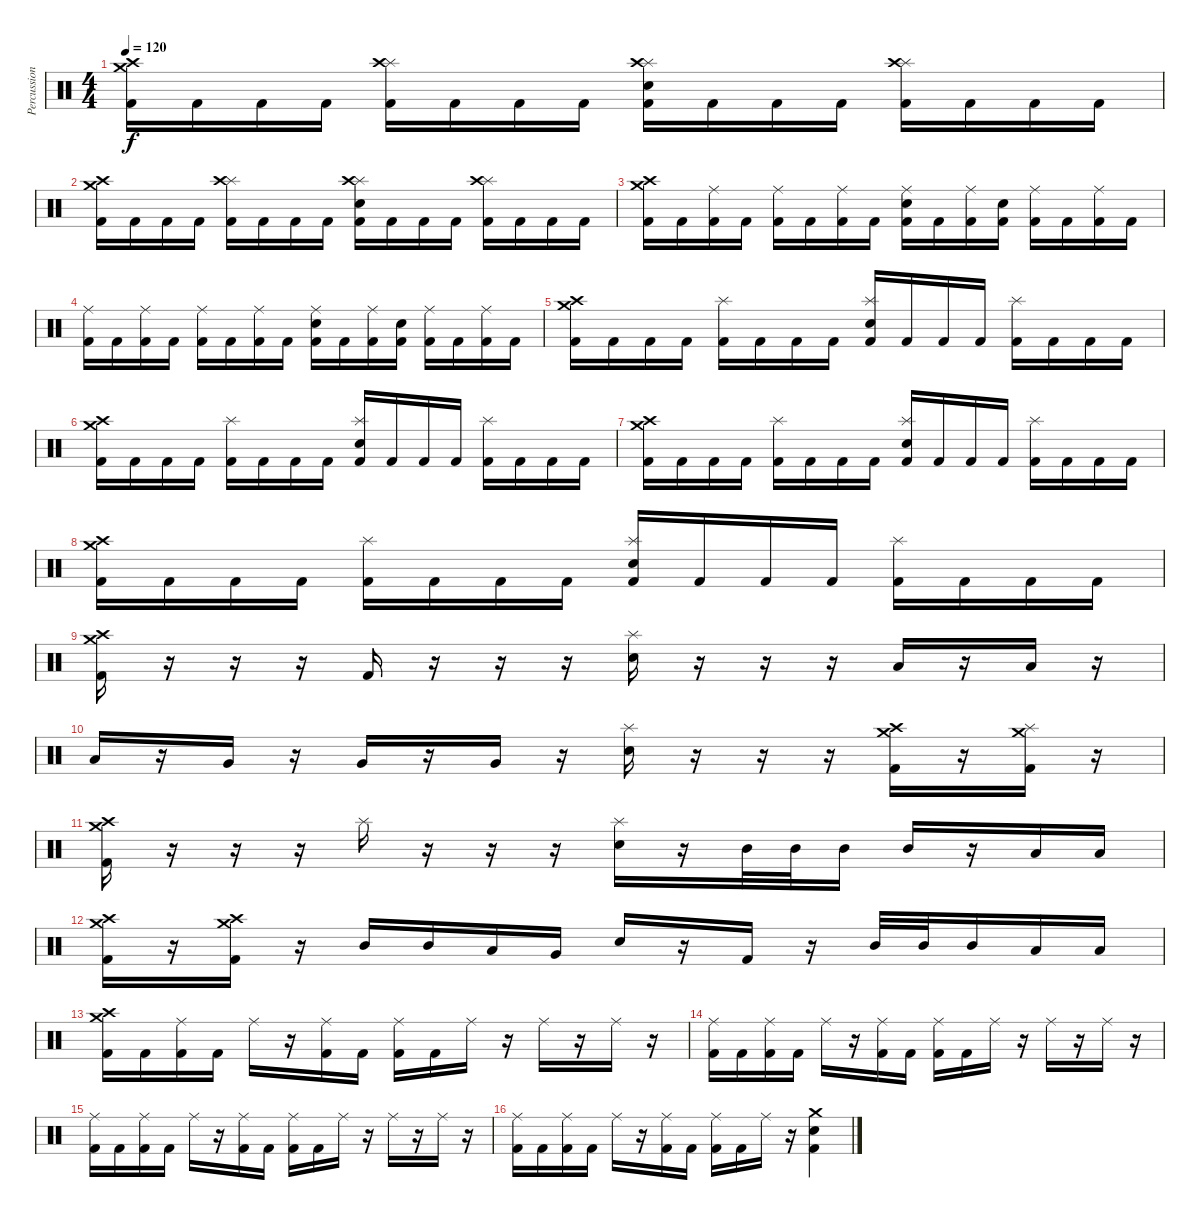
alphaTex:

\track ("Percussion" "Percussion") {instrument percussion}
\staff {score}
\articulation defaults
\ts (4 4)
\tempo 120
\clef neutral
\ks c
("Crash medium (hit)" "Crash high (hit)" "Kick (hit) 2").16{dy f} "Kick (hit) 2".16 "Kick (hit) 2".16 "Kick (hit) 2".16 ("Splash (hit)" "Crash high (hit)" "Kick (hit) 2").16 "Kick (hit) 2".16 "Kick (hit) 2".16 "Kick (hit) 2".16 ("Splash (hit)" "Crash high (hit)" "Snare (hit) 2" "Kick (hit) 2").16 "Kick (hit) 2".16 "Kick (hit) 2".16 "Kick (hit) 2".16 ("Splash (hit)" "Crash high (hit)" "Kick (hit) 2").16 "Kick (hit) 2".16 "Kick (hit) 2".16 "Kick (hit) 2".16 |
("Crash medium (hit)" "Crash high (hit)" "Kick (hit) 2").16 "Kick (hit) 2".16 "Kick (hit) 2".16 "Kick (hit) 2".16 ("Splash (hit)" "Crash high (hit)" "Kick (hit) 2").16 "Kick (hit) 2".16 "Kick (hit) 2".16 "Kick (hit) 2".16 ("Splash (hit)" "Crash high (hit)" "Snare (hit) 2" "Kick (hit) 2").16 "Kick (hit) 2".16 "Kick (hit) 2".16 "Kick (hit) 2".16 ("Splash (hit)" "Crash high (hit)" "Kick (hit) 2").16 "Kick (hit) 2".16 "Kick (hit) 2".16 "Kick (hit) 2".16 |
("Crash medium (hit)" "Crash high (hit)" "Kick (hit) 2").16 "Kick (hit) 2".16 ("Ride (middle)" "Kick (hit) 2").16 "Kick (hit) 2".16 ("Ride (middle)" "Kick (hit) 2").16 "Kick (hit) 2".16 ("Ride (middle)" "Kick (hit) 2").16 "Kick (hit) 2".16 ("Ride (middle)" "Snare (hit) 2" "Kick (hit) 2").16 "Kick (hit) 2".16 ("Ride (middle)" "Kick (hit) 2").16 ("Snare (hit) 2" "Kick (hit) 2").16 ("Ride (middle)" "Kick (hit) 2").16 "Kick (hit) 2".16 ("Ride (middle)" "Kick (hit) 2").16 "Kick (hit) 2".16 |
("Ride (middle)" "Kick (hit) 2").16 "Kick (hit) 2".16 ("Ride (middle)" "Kick (hit) 2").16 "Kick (hit) 2".16 ("Ride (middle)" "Kick (hit) 2").16 "Kick (hit) 2".16 ("Ride (middle)" "Kick (hit) 2").16 "Kick (hit) 2".16 ("Ride (middle)" "Snare (hit) 2" "Kick (hit) 2").16 "Kick (hit) 2".16 ("Ride (middle)" "Kick (hit) 2").16 ("Snare (hit) 2" "Kick (hit) 2").16 ("Ride (middle)" "Kick (hit) 2").16 "Kick (hit) 2".16 ("Ride (middle)" "Kick (hit) 2").16 "Kick (hit) 2".16 |
("Crash medium (hit)" "Crash high (hit)" "Kick (hit) 2").16 "Kick (hit) 2".16 "Kick (hit) 2".16 "Kick (hit) 2".16 ("Splash (hit)" "Kick (hit) 2").16 "Kick (hit) 2".16 "Kick (hit) 2".16 "Kick (hit) 2".16 ("Splash (hit)" "Snare (hit) 2" "Kick (hit) 2").16 "Kick (hit) 2".16 "Kick (hit) 2".16 "Kick (hit) 2".16 ("Splash (hit)" "Kick (hit) 2").16 "Kick (hit) 2".16 "Kick (hit) 2".16 "Kick (hit) 2".16 |
("Crash medium (hit)" "Crash high (hit)" "Kick (hit) 2").16 "Kick (hit) 2".16 "Kick (hit) 2".16 "Kick (hit) 2".16 ("Splash (hit)" "Kick (hit) 2").16 "Kick (hit) 2".16 "Kick (hit) 2".16 "Kick (hit) 2".16 ("Splash (hit)" "Snare (hit) 2" "Kick (hit) 2").16 "Kick (hit) 2".16 "Kick (hit) 2".16 "Kick (hit) 2".16 ("Splash (hit)" "Kick (hit) 2").16 "Kick (hit) 2".16 "Kick (hit) 2".16 "Kick (hit) 2".16 |
("Crash medium (hit)" "Crash high (hit)" "Kick (hit) 2").16 "Kick (hit) 2".16 "Kick (hit) 2".16 "Kick (hit) 2".16 ("Splash (hit)" "Kick (hit) 2").16 "Kick (hit) 2".16 "Kick (hit) 2".16 "Kick (hit) 2".16 ("Splash (hit)" "Snare (hit) 2" "Kick (hit) 2").16 "Kick (hit) 2".16 "Kick (hit) 2".16 "Kick (hit) 2".16 ("Splash (hit)" "Kick (hit) 2").16 "Kick (hit) 2".16 "Kick (hit) 2".16 "Kick (hit) 2".16 |
("Crash medium (hit)" "Crash high (hit)" "Kick (hit) 2").16 "Kick (hit) 2".16 "Kick (hit) 2".16 "Kick (hit) 2".16 ("Splash (hit)" "Kick (hit) 2").16 "Kick (hit) 2".16 "Kick (hit) 2".16 "Kick (hit) 2".16 ("Splash (hit)" "Snare (hit) 2" "Kick (hit) 2").16 "Kick (hit) 2".16 "Kick (hit) 2".16 "Kick (hit) 2".16 ("Splash (hit)" "Kick (hit) 2").16 "Kick (hit) 2".16 "Kick (hit) 2".16 "Kick (hit) 2".16 |
("Crash medium (hit)" "Crash high (hit)" "Kick (hit) 2").16 r.16 r.16 r.16 "Kick (hit) 2".16 r.16 r.16 r.16 ("Splash (hit)" "Snare (hit) 2").16 r.16 r.16 r.16 "Low Tom (hit)".16 r.16 "Low Tom (hit)".16 r.16 |
"Low Tom (hit)".16 r.16 "Very Low Tom (hit)".16 r.16 "Very Low Tom (hit)".16 r.16 "Very Low Tom (hit)".16 r.16 ("Splash (hit)" "Snare (hit) 2").16 r.16 r.16 r.16 ("Crash medium (hit)" "Crash high (hit)" "Kick (hit) 2").16 r.16 ("Crash medium (hit)" "Splash (hit)" "Kick (hit) 2").16 r.16 |
("Crash medium (hit)" "Crash high (hit)" "Kick (hit) 2").16 r.16 r.16 r.16 "Splash (hit)".16 r.16 r.16 r.16 ("Splash (hit)" "Snare (hit) 2").16 r.16 "Mid Tom (hit)".32 "Mid Tom (hit)".32 "Mid Tom (hit)".16 "Mid Tom (hit)".16 r.16 "Low Tom (hit)".16 "Low Tom (hit)".16 |
("Crash medium (hit)" "Crash high (hit)" "Kick (hit) 2").16 r.16 ("Crash medium (hit)" "Crash high (hit)" "Kick (hit) 2").16 r.16 "Mid Tom (hit)".16 "Mid Tom (hit)".16 "Low Tom (hit)".16 "Very Low Tom (hit)".16 "Snare (hit) 2".16 r.16 "Kick (hit) 2".16 r.16 "Mid Tom (hit)".32 "Mid Tom (hit)".32 "Mid Tom (hit)".16 "Low Tom (hit)".16 "Low Tom (hit)".16 |
("Crash medium (hit)" "Crash high (hit)" "Kick (hit) 2").16 "Kick (hit) 2".16 ("Ride (middle)" "Kick (hit) 2").16 "Kick (hit) 2".16 "Ride (middle)".16 r.16 ("Ride (middle)" "Kick (hit) 2").16 "Kick (hit) 2".16 ("Ride (middle)" "Kick (hit) 2").16 "Kick (hit) 2".16 "Ride (middle)".16 r.16 "Ride (middle)".16 r.16 "Ride (middle)".16 r.16 |
("Ride (middle)" "Kick (hit) 2").16 "Kick (hit) 2".16 ("Ride (middle)" "Kick (hit) 2").16 "Kick (hit) 2".16 "Ride (middle)".16 r.16 ("Ride (middle)" "Kick (hit) 2").16 "Kick (hit) 2".16 ("Ride (middle)" "Kick (hit) 2").16 "Kick (hit) 2".16 "Ride (middle)".16 r.16 "Ride (middle)".16 r.16 "Ride (middle)".16 r.16 |
("Ride (middle)" "Kick (hit) 2").16 "Kick (hit) 2".16 ("Ride (middle)" "Kick (hit) 2").16 "Kick (hit) 2".16 "Ride (middle)".16 r.16 ("Ride (middle)" "Kick (hit) 2").16 "Kick (hit) 2".16 ("Ride (middle)" "Kick (hit) 2").16 "Kick (hit) 2".16 "Ride (middle)".16 r.16 "Ride (middle)".16 r.16 "Ride (middle)".16 r.16 |
("Ride (middle)" "Kick (hit) 2").16 "Kick (hit) 2".16 ("Ride (middle)" "Kick (hit) 2").16 "Kick (hit) 2".16 "Ride (middle)".16 r.16 ("Ride (middle)" "Kick (hit) 2").16 "Kick (hit) 2".16 ("Ride (middle)" "Kick (hit) 2").16 "Kick (hit) 2".16 "Ride (middle)".16 r.16 ("Crash medium (hit)" "Snare (hit) 2" "Kick (hit) 2").4
